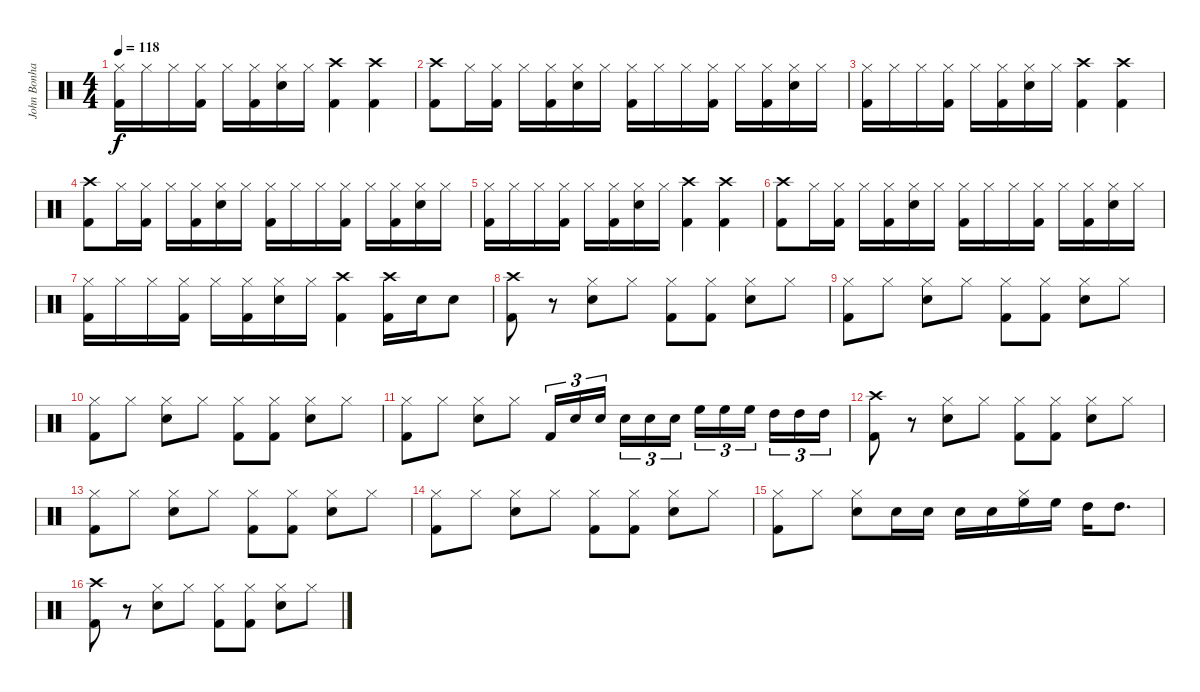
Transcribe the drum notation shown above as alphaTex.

\track ("John Bonham (Bateria)" "John Bonha") {instrument percussion}
\staff {score}
\articulation defaults
\ts (4 4)
\tempo 118
\clef neutral
\ks c
("Hi-Hat (closed)" "Kick (hit) 2").16{dy f} "Hi-Hat (closed)".16 "Hi-Hat (closed)".16 ("Hi-Hat (closed)" "Kick (hit) 2").16 "Hi-Hat (closed)".16 ("Hi-Hat (closed)" "Kick (hit) 2").16 ("Hi-Hat (closed)" "Snare (hit) 2").16 "Hi-Hat (closed)".16 ("Kick (hit) 2" "Crash high (hit)").4 ("Crash high (hit)" "Kick (hit) 2").4 |
("Crash high (hit)" "Kick (hit) 2").8 "Hi-Hat (closed)".16 ("Kick (hit) 2" "Hi-Hat (closed)").16 "Hi-Hat (closed)".16 ("Kick (hit) 2" "Hi-Hat (closed)").16 ("Snare (hit) 2" "Hi-Hat (closed)").16 "Hi-Hat (closed)".16 ("Kick (hit) 2" "Hi-Hat (closed)").16 "Hi-Hat (closed)".16 "Hi-Hat (closed)".16 ("Kick (hit) 2" "Hi-Hat (closed)").16 "Hi-Hat (closed)".16 ("Kick (hit) 2" "Hi-Hat (closed)").16 ("Snare (hit) 2" "Hi-Hat (closed)").16 "Hi-Hat (closed)".16 |
("Hi-Hat (closed)" "Kick (hit) 2").16 "Hi-Hat (closed)".16 "Hi-Hat (closed)".16 ("Hi-Hat (closed)" "Kick (hit) 2").16 "Hi-Hat (closed)".16 ("Hi-Hat (closed)" "Kick (hit) 2").16 ("Hi-Hat (closed)" "Snare (hit) 2").16 "Hi-Hat (closed)".16 ("Kick (hit) 2" "Crash high (hit)").4 ("Crash high (hit)" "Kick (hit) 2").4 |
("Crash high (hit)" "Kick (hit) 2").8 "Hi-Hat (closed)".16 ("Kick (hit) 2" "Hi-Hat (closed)").16 "Hi-Hat (closed)".16 ("Kick (hit) 2" "Hi-Hat (closed)").16 ("Snare (hit) 2" "Hi-Hat (closed)").16 "Hi-Hat (closed)".16 ("Kick (hit) 2" "Hi-Hat (closed)").16 "Hi-Hat (closed)".16 "Hi-Hat (closed)".16 ("Kick (hit) 2" "Hi-Hat (closed)").16 "Hi-Hat (closed)".16 ("Kick (hit) 2" "Hi-Hat (closed)").16 ("Snare (hit) 2" "Hi-Hat (closed)").16 "Hi-Hat (closed)".16 |
("Hi-Hat (closed)" "Kick (hit) 2").16 "Hi-Hat (closed)".16 "Hi-Hat (closed)".16 ("Hi-Hat (closed)" "Kick (hit) 2").16 "Hi-Hat (closed)".16 ("Hi-Hat (closed)" "Kick (hit) 2").16 ("Hi-Hat (closed)" "Snare (hit) 2").16 "Hi-Hat (closed)".16 ("Kick (hit) 2" "Crash high (hit)").4 ("Crash high (hit)" "Kick (hit) 2").4 |
("Crash high (hit)" "Kick (hit) 2").8 "Hi-Hat (closed)".16 ("Kick (hit) 2" "Hi-Hat (closed)").16 "Hi-Hat (closed)".16 ("Kick (hit) 2" "Hi-Hat (closed)").16 ("Snare (hit) 2" "Hi-Hat (closed)").16 "Hi-Hat (closed)".16 ("Kick (hit) 2" "Hi-Hat (closed)").16 "Hi-Hat (closed)".16 "Hi-Hat (closed)".16 ("Kick (hit) 2" "Hi-Hat (closed)").16 "Hi-Hat (closed)".16 ("Kick (hit) 2" "Hi-Hat (closed)").16 ("Snare (hit) 2" "Hi-Hat (closed)").16 "Hi-Hat (closed)".16 |
("Hi-Hat (closed)" "Kick (hit) 2").16 "Hi-Hat (closed)".16 "Hi-Hat (closed)".16 ("Hi-Hat (closed)" "Kick (hit) 2").16 "Hi-Hat (closed)".16 ("Hi-Hat (closed)" "Kick (hit) 2").16 ("Hi-Hat (closed)" "Snare (hit) 2").16 "Hi-Hat (closed)".16 ("Kick (hit) 2" "Crash high (hit)").4 ("Crash high (hit)" "Kick (hit) 2").16 "Snare (hit) 2".16 "Snare (hit) 2".8 |
("Crash high (hit)" "Kick (hit) 2").8 r.8 ("Snare (hit) 2" "Hi-Hat (closed)").8 "Hi-Hat (closed)".8 ("Hi-Hat (closed)" "Kick (hit) 2").8 ("Hi-Hat (closed)" "Kick (hit) 2").8 ("Hi-Hat (closed)" "Snare (hit) 2").8 "Hi-Hat (closed)".8 |
("Hi-Hat (closed)" "Kick (hit) 2").8 "Hi-Hat (closed)".8 ("Snare (hit) 2" "Hi-Hat (closed)").8 "Hi-Hat (closed)".8 ("Kick (hit) 2" "Hi-Hat (closed)").8 ("Kick (hit) 2" "Hi-Hat (closed)").8 ("Snare (hit) 2" "Hi-Hat (closed)").8 "Hi-Hat (closed)".8 |
("Hi-Hat (closed)" "Kick (hit) 2").8 "Hi-Hat (closed)".8 ("Snare (hit) 2" "Hi-Hat (closed)").8 "Hi-Hat (closed)".8 ("Kick (hit) 2" "Hi-Hat (closed)").8 ("Kick (hit) 2" "Hi-Hat (closed)").8 ("Snare (hit) 2" "Hi-Hat (closed)").8 "Hi-Hat (closed)".8 |
("Hi-Hat (closed)" "Kick (hit) 2").8 "Hi-Hat (closed)".8 ("Hi-Hat (closed)" "Snare (hit) 2").8 "Hi-Hat (closed)".8 "Kick (hit) 2".16{tu (3 2)} "Snare (hit) 2".16{tu (3 2)} "Snare (hit) 2".16{tu (3 2) beam splitsecondary} "Snare (hit) 2".16{tu (3 2)} "Snare (hit) 2".16{tu (3 2)} "Snare (hit) 2".16{tu (3 2)} "High Floor Tom (hit)".16{tu (3 2)} "High Floor Tom (hit)".16{tu (3 2)} "High Floor Tom (hit)".16{tu (3 2) beam splitsecondary} "High Tom (hit)".16{tu (3 2)} "High Tom (hit)".16{tu (3 2)} "High Tom (hit)".16{tu (3 2)} |
("Crash high (hit)" "Kick (hit) 2").8 r.8 ("Snare (hit) 2" "Hi-Hat (closed)").8 "Hi-Hat (closed)".8 ("Hi-Hat (closed)" "Kick (hit) 2").8 ("Hi-Hat (closed)" "Kick (hit) 2").8 ("Hi-Hat (closed)" "Snare (hit) 2").8 "Hi-Hat (closed)".8 |
("Hi-Hat (closed)" "Kick (hit) 2").8 "Hi-Hat (closed)".8 ("Snare (hit) 2" "Hi-Hat (closed)").8 "Hi-Hat (closed)".8 ("Kick (hit) 2" "Hi-Hat (closed)").8 ("Kick (hit) 2" "Hi-Hat (closed)").8 ("Snare (hit) 2" "Hi-Hat (closed)").8 "Hi-Hat (closed)".8 |
("Hi-Hat (closed)" "Kick (hit) 2").8 "Hi-Hat (closed)".8 ("Snare (hit) 2" "Hi-Hat (closed)").8 "Hi-Hat (closed)".8 ("Kick (hit) 2" "Hi-Hat (closed)").8 ("Kick (hit) 2" "Hi-Hat (closed)").8 ("Snare (hit) 2" "Hi-Hat (closed)").8 "Hi-Hat (closed)".8 |
("Hi-Hat (closed)" "Kick (hit) 2").8 "Hi-Hat (closed)".8 ("Hi-Hat (closed)" "Snare (hit) 2").8 "Snare (hit) 2".16 "Snare (hit) 2".16 "Snare (hit) 2".16 "Snare (hit) 2".16 ("High Floor Tom (hit)" "Hi-Hat (closed)").16 "High Floor Tom (hit)".16 "High Tom (hit)".16 "High Tom (hit)".8{d} |
("Crash high (hit)" "Kick (hit) 2").8 r.8 ("Snare (hit) 2" "Hi-Hat (closed)").8 "Hi-Hat (closed)".8 ("Hi-Hat (closed)" "Kick (hit) 2").8 ("Hi-Hat (closed)" "Kick (hit) 2").8 ("Hi-Hat (closed)" "Snare (hit) 2").8 "Hi-Hat (closed)".8
